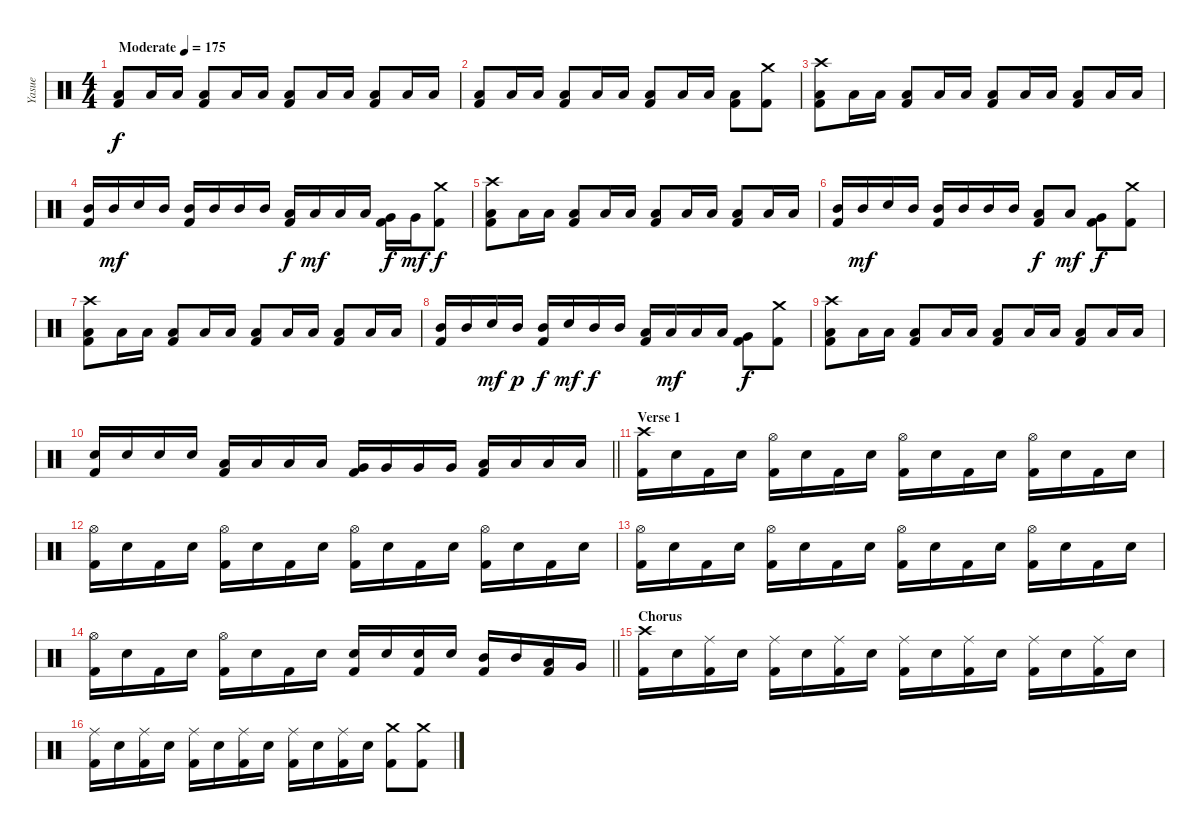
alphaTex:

\track ("Yasue" "Yasue") {instrument percussion}
\staff {score}
\articulation defaults
\ts (4 4)
\tempo (175 "Moderate")
\clef neutral
\ks c
("Low Floor Tom (hit)" "Kick (hit) 2").8{dy f} "Low Floor Tom (hit)".16 "Low Floor Tom (hit)".16 ("Low Floor Tom (hit)" "Kick (hit) 2").8 "Low Floor Tom (hit)".16 "Low Floor Tom (hit)".16 ("Low Floor Tom (hit)" "Kick (hit) 2").8 "Low Floor Tom (hit)".16 "Low Floor Tom (hit)".16 ("Low Floor Tom (hit)" "Kick (hit) 2").8 "Low Floor Tom (hit)".16 "Low Floor Tom (hit)".16 |
("Low Floor Tom (hit)" "Kick (hit) 2").8 "Low Floor Tom (hit)".16 "Low Floor Tom (hit)".16 ("Low Floor Tom (hit)" "Kick (hit) 2").8 "Low Floor Tom (hit)".16 "Low Floor Tom (hit)".16 ("Low Floor Tom (hit)" "Kick (hit) 2").8 "Low Floor Tom (hit)".16 "Low Floor Tom (hit)".16 ("Low Floor Tom (hit)" "Kick (hit) 2").8 ("Crash medium (hit)" "Kick (hit) 2").8 |
("Crash high (hit)" "Low Floor Tom (hit)" "Kick (hit) 2").8 "Low Floor Tom (hit)".16 "Low Floor Tom (hit)".16 ("Low Floor Tom (hit)" "Kick (hit) 2").8 "Low Floor Tom (hit)".16 "Low Floor Tom (hit)".16 ("Low Floor Tom (hit)" "Kick (hit) 2").8 "Low Floor Tom (hit)".16 "Low Floor Tom (hit)".16 ("Low Floor Tom (hit)" "Kick (hit) 2").8 "Low Floor Tom (hit)".16 "Low Floor Tom (hit)".16 |
("Mid Tom (hit)" "Kick (hit) 2").16 "Mid Tom (hit)".16{dy mf} "Electric Snare (hit)".16 "Mid Tom (hit)".16 ("Mid Tom (hit)" "Kick (hit) 2").16 "Mid Tom (hit)".16 "Mid Tom (hit)".16 "Mid Tom (hit)".16 ("Low Tom (hit)" "Kick (hit) 2").16{dy f} "Low Tom (hit)".16{dy mf} "Low Tom (hit)".16 "Low Tom (hit)".16 ("Very Low Tom (hit)" "Kick (hit) 2").16{dy f} "Very Low Tom (hit)".16{dy mf} ("Crash medium (hit)" "Kick (hit) 2").8{dy f} |
("Crash high (hit)" "Low Floor Tom (hit)" "Kick (hit) 2").8 "Low Floor Tom (hit)".16 "Low Floor Tom (hit)".16 ("Low Floor Tom (hit)" "Kick (hit) 2").8 "Low Floor Tom (hit)".16 "Low Floor Tom (hit)".16 ("Low Floor Tom (hit)" "Kick (hit) 2").8 "Low Floor Tom (hit)".16 "Low Floor Tom (hit)".16 ("Low Floor Tom (hit)" "Kick (hit) 2").8 "Low Floor Tom (hit)".16 "Low Floor Tom (hit)".16 |
("Mid Tom (hit)" "Kick (hit) 2").16 "Mid Tom (hit)".16{dy mf} "Electric Snare (hit)".16 "Mid Tom (hit)".16 ("Mid Tom (hit)" "Kick (hit) 2").16 "Mid Tom (hit)".16 "Mid Tom (hit)".16 "Mid Tom (hit)".16 ("Low Tom (hit)" "Kick (hit) 2").8{dy f} "Low Tom (hit)".8{dy mf} ("Very Low Tom (hit)" "Kick (hit) 2").8{dy f} ("Crash medium (hit)" "Kick (hit) 2").8 |
("Crash high (hit)" "Low Floor Tom (hit)" "Kick (hit) 2").8 "Low Floor Tom (hit)".16 "Low Floor Tom (hit)".16 ("Low Floor Tom (hit)" "Kick (hit) 2").8 "Low Floor Tom (hit)".16 "Low Floor Tom (hit)".16 ("Low Floor Tom (hit)" "Kick (hit) 2").8 "Low Floor Tom (hit)".16 "Low Floor Tom (hit)".16 ("Low Floor Tom (hit)" "Kick (hit) 2").8 "Low Floor Tom (hit)".16 "Low Floor Tom (hit)".16 |
("Mid Tom (hit)" "Kick (hit) 2").16 "Mid Tom (hit)".16 "Electric Snare (hit)".16{dy mf} "Mid Tom (hit)".16{dy p} ("Mid Tom (hit)" "Kick (hit) 2").16{dy f} "Electric Snare (hit)".16{dy mf} "Mid Tom (hit)".16{dy f} "Mid Tom (hit)".16 ("Low Tom (hit)" "Kick (hit) 2").16 "Low Tom (hit)".16{dy mf} "Low Tom (hit)".16 "Low Tom (hit)".16 ("Very Low Tom (hit)" "Kick (hit) 2").8{dy f} ("Crash medium (hit)" "Kick (hit) 2").8 |
("Crash high (hit)" "Low Floor Tom (hit)" "Kick (hit) 2").8 "Low Floor Tom (hit)".16 "Low Floor Tom (hit)".16 ("Low Floor Tom (hit)" "Kick (hit) 2").8 "Low Floor Tom (hit)".16 "Low Floor Tom (hit)".16 ("Low Floor Tom (hit)" "Kick (hit) 2").8 "Low Floor Tom (hit)".16 "Low Floor Tom (hit)".16 ("Low Floor Tom (hit)" "Kick (hit) 2").8 "Low Floor Tom (hit)".16 "Low Floor Tom (hit)".16 |
\barLineRight lightlight
("Electric Snare (hit)" "Kick (hit) 2").16 "Electric Snare (hit)".16 "Electric Snare (hit)".16 "Electric Snare (hit)".16 ("Low Tom (hit)" "Kick (hit) 2").16 "Low Tom (hit)".16 "Low Tom (hit)".16 "Low Tom (hit)".16 ("Very Low Tom (hit)" "Kick (hit) 2").16 "Very Low Tom (hit)".16 "Very Low Tom (hit)".16 "Very Low Tom (hit)".16 ("Low Floor Tom (hit)" "Kick (hit) 2").16 "Low Floor Tom (hit)".16 "Low Floor Tom (hit)".16 "Low Floor Tom (hit)".16 |
\section ("" "Verse 1")
("Crash high (hit)" "Kick (hit) 2").16 "Electric Snare (hit)".16 "Kick (hit) 2".16 "Electric Snare (hit)".16 ("Hi-Hat (open)" "Kick (hit) 2").16 "Electric Snare (hit)".16 "Kick (hit) 2".16 "Electric Snare (hit)".16 ("Hi-Hat (open)" "Kick (hit) 2").16 "Electric Snare (hit)".16 "Kick (hit) 2".16 "Electric Snare (hit)".16 ("Hi-Hat (open)" "Kick (hit) 2").16 "Electric Snare (hit)".16 "Kick (hit) 2".16 "Electric Snare (hit)".16 |
("Hi-Hat (open)" "Kick (hit) 2").16 "Electric Snare (hit)".16 "Kick (hit) 2".16 "Electric Snare (hit)".16 ("Hi-Hat (open)" "Kick (hit) 2").16 "Electric Snare (hit)".16 "Kick (hit) 2".16 "Electric Snare (hit)".16 ("Hi-Hat (open)" "Kick (hit) 2").16 "Electric Snare (hit)".16 "Kick (hit) 2".16 "Electric Snare (hit)".16 ("Hi-Hat (open)" "Kick (hit) 2").16 "Electric Snare (hit)".16 "Kick (hit) 2".16 "Electric Snare (hit)".16 |
("Hi-Hat (open)" "Kick (hit) 2").16 "Electric Snare (hit)".16 "Kick (hit) 2".16 "Electric Snare (hit)".16 ("Hi-Hat (open)" "Kick (hit) 2").16 "Electric Snare (hit)".16 "Kick (hit) 2".16 "Electric Snare (hit)".16 ("Hi-Hat (open)" "Kick (hit) 2").16 "Electric Snare (hit)".16 "Kick (hit) 2".16 "Electric Snare (hit)".16 ("Hi-Hat (open)" "Kick (hit) 2").16 "Electric Snare (hit)".16 "Kick (hit) 2".16 "Electric Snare (hit)".16 |
\barLineRight lightlight
("Hi-Hat (open)" "Kick (hit) 2").16 "Electric Snare (hit)".16 "Kick (hit) 2".16 "Electric Snare (hit)".16 ("Hi-Hat (open)" "Kick (hit) 2").16 "Electric Snare (hit)".16 "Kick (hit) 2".16 "Electric Snare (hit)".16 ("Electric Snare (hit)" "Kick (hit) 2").16 "Electric Snare (hit)".16 ("Electric Snare (hit)" "Kick (hit) 2").16 "Electric Snare (hit)".16 ("Mid Tom (hit)" "Kick (hit) 2").16 "Mid Tom (hit)".16 ("Low Tom (hit)" "Kick (hit) 2").16 "Very Low Tom (hit)".16 |
\section ("" "Chorus")
("Crash high (hit)" "Kick (hit) 2").16 "Electric Snare (hit)".16 ("Ride (middle)" "Kick (hit) 2").16 "Electric Snare (hit)".16 ("Ride (middle)" "Kick (hit) 2").16 "Electric Snare (hit)".16 ("Ride (middle)" "Kick (hit) 2").16 "Electric Snare (hit)".16 ("Ride (middle)" "Kick (hit) 2").16 "Electric Snare (hit)".16 ("Ride (middle)" "Kick (hit) 2").16 "Electric Snare (hit)".16 ("Ride (middle)" "Kick (hit) 2").16 "Electric Snare (hit)".16 ("Ride (middle)" "Kick (hit) 2").16 "Electric Snare (hit)".16 |
("Ride (middle)" "Kick (hit) 2").16 "Electric Snare (hit)".16 ("Ride (middle)" "Kick (hit) 2").16 "Electric Snare (hit)".16 ("Ride (middle)" "Kick (hit) 2").16 "Electric Snare (hit)".16 ("Ride (middle)" "Kick (hit) 2").16 "Electric Snare (hit)".16 ("Ride (middle)" "Kick (hit) 2").16 "Electric Snare (hit)".16 ("Ride (middle)" "Kick (hit) 2").16 "Electric Snare (hit)".16 ("Crash medium (hit)" "Kick (hit) 2").8 ("Crash medium (hit)" "Kick (hit) 2").8
